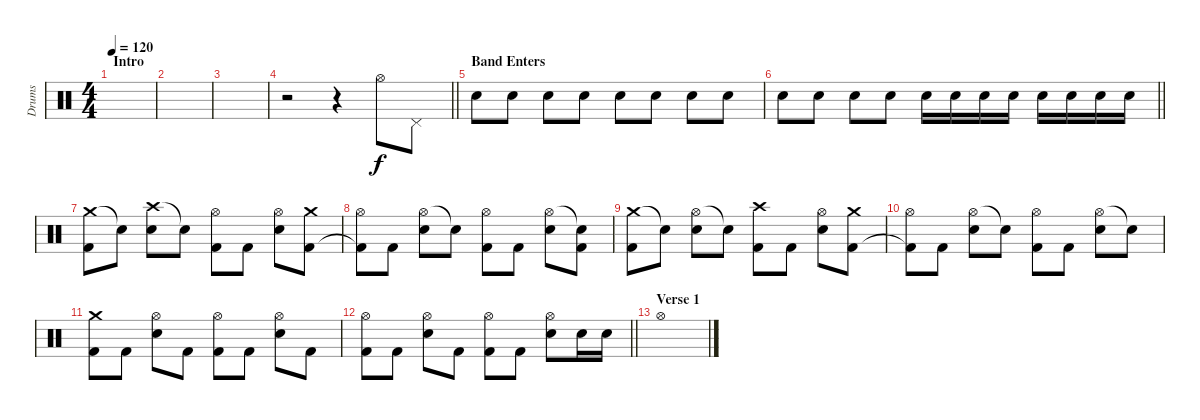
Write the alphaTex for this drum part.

\track ("Drums" "Drums") {instrument percussion}
\staff {score}
\articulation defaults
\ts (4 4)
\section ("" "Intro")
\tempo 120
\tempo 175
\tempo 120
\clef neutral
\ks c
|
|
|
\barLineRight lightlight
r.2 r.4 "Hi-Hat (open)".8 "Pedal Hi-Hat (hit)".8 |
\section ("" "Band Enters")
"Snare (hit) 2".8 "Snare (hit) 2".8 "Snare (hit) 2".8 "Snare (hit) 2".8 "Snare (hit) 2".8 "Snare (hit) 2".8 "Snare (hit) 2".8 "Snare (hit) 2".8 |
\barLineRight lightlight "Snare (hit) 2".8 "Snare (hit) 2".8 "Snare (hit) 2".8 "Snare (hit) 2".8 "Snare (hit) 2".16 "Snare (hit) 2".16 "Snare (hit) 2".16 "Snare (hit) 2".16 "Snare (hit) 2".16 "Snare (hit) 2".16 "Snare (hit) 2".16 "Snare (hit) 2".16
|
\section ("" "")
("Crash medium (hit)" "Kick (hit) 2").8 "Snare (hit)"{t}.8 ("Crash high (hit)" "Snare (hit) 2").8 "Snare (hit)"{t}.8 ("Hi-Hat (open)" "Kick (hit) 2").8 "Kick (hit) 2".8 ("Hi-Hat (open)" "Snare (hit) 2").8 ("Crash medium (hit)" "Kick (hit) 2").8 |
("Hi-Hat (open)" "Kick (hit) 2"{t}).8 "Kick (hit) 2".8 ("Hi-Hat (open)" "Snare (hit) 2").8 "Snare (hit)"{t}.8 ("Hi-Hat (open)" "Kick (hit) 2").8 "Kick (hit) 2".8 ("Hi-Hat (open)" "Snare (hit) 2").8 ("Snare (hit)"{t} "Kick (hit) 2").8 |
("Crash medium (hit)" "Kick (hit) 2").8 "Snare (hit)"{t}.8 ("Hi-Hat (open)" "Snare (hit) 2").8 "Snare (hit)"{t}.8 ("Crash high (hit)" "Kick (hit) 2").8 "Kick (hit) 2".8 ("Hi-Hat (open)" "Snare (hit) 2").8 ("Crash medium (hit)" "Kick (hit) 2").8 |
("Hi-Hat (open)" "Kick (hit) 2"{t}).8 "Kick (hit) 2".8 ("Hi-Hat (open)" "Snare (hit) 2").8 "Snare (hit)"{t}.8 ("Hi-Hat (open)" "Kick (hit) 2").8 "Kick (hit) 2".8 ("Hi-Hat (open)" "Snare (hit) 2").8 "Snare (hit)"{t}.8 |
("Crash medium (hit)" "Kick (hit) 2").8 "Kick (hit) 2".8 ("Hi-Hat (open)" "Snare (hit) 2").8 "Kick (hit) 2".8 ("Hi-Hat (open)" "Kick (hit) 2").8 "Kick (hit) 2".8 ("Hi-Hat (open)" "Snare (hit) 2").8 "Kick (hit) 2".8 |
\barLineRight lightlight
("Hi-Hat (open)" "Kick (hit) 2").8 "Kick (hit) 2".8 ("Hi-Hat (open)" "Snare (hit) 2").8 "Kick (hit) 2".8 ("Hi-Hat (open)" "Kick (hit) 2").8 "Kick (hit) 2".8 ("Hi-Hat (open)" "Snare (hit) 2").8 "Snare (hit) 2".16 "Snare (hit) 2".16 |
\section ("" "Verse 1")
"Hi-Hat (open)".1
